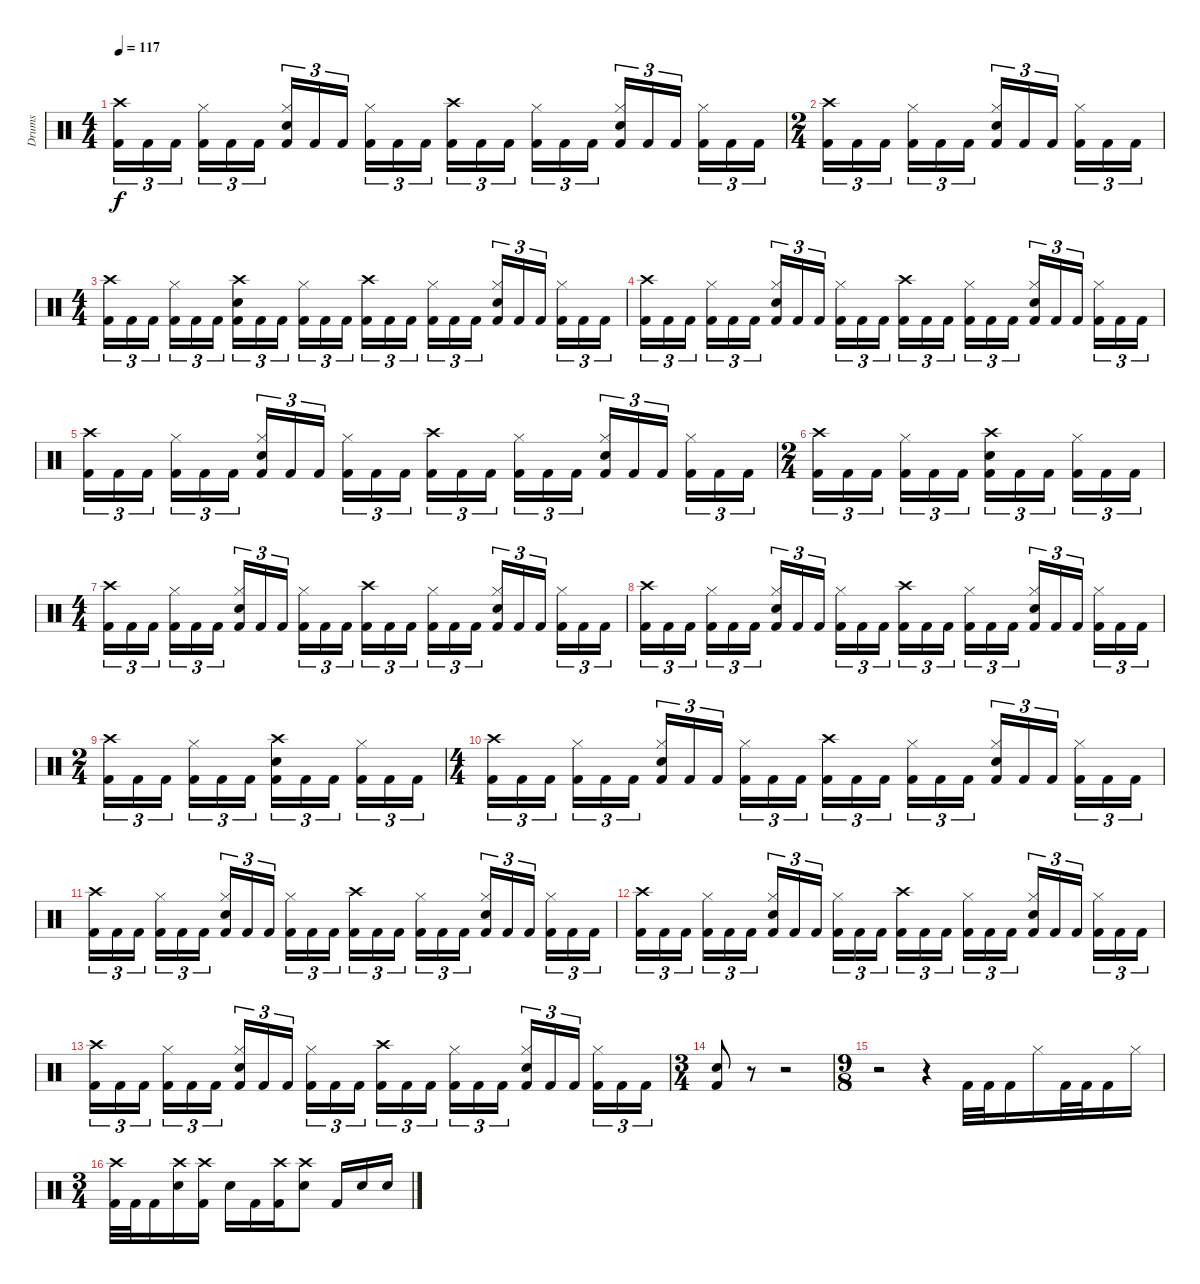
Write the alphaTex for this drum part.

\track ("Drums" "Drums") {instrument percussion}
\staff {score}
\articulation defaults
\ts (4 4)
\tempo 117
\clef neutral
\ks c
("Crash high (hit)" "Kick (hit) 2").16{tu (3 2) dy f} "Kick (hit) 2".16{tu (3 2)} "Kick (hit) 2".16{tu (3 2)} ("Hi-Hat (closed)" "Kick (hit) 2").16{tu (3 2)} "Kick (hit) 2".16{tu (3 2)} "Kick (hit) 2".16{tu (3 2)} ("Hi-Hat (closed)" "Electric Snare (hit)" "Kick (hit) 2").16{tu (3 2)} "Kick (hit) 2".16{tu (3 2)} "Kick (hit) 2".16{tu (3 2)} ("Hi-Hat (closed)" "Kick (hit) 2").16{tu (3 2)} "Kick (hit) 2".16{tu (3 2)} "Kick (hit) 2".16{tu (3 2)} ("Crash high (hit)" "Kick (hit) 2").16{tu (3 2)} "Kick (hit) 2".16{tu (3 2)} "Kick (hit) 2".16{tu (3 2)} ("Hi-Hat (closed)" "Kick (hit) 2").16{tu (3 2)} "Kick (hit) 2".16{tu (3 2)} "Kick (hit) 2".16{tu (3 2)} ("Hi-Hat (closed)" "Electric Snare (hit)" "Kick (hit) 2").16{tu (3 2)} "Kick (hit) 2".16{tu (3 2)} "Kick (hit) 2".16{tu (3 2)} ("Hi-Hat (closed)" "Kick (hit) 2").16{tu (3 2)} "Kick (hit) 2".16{tu (3 2)} "Kick (hit) 2".16{tu (3 2)} |
\ts (2 4)
("Crash high (hit)" "Kick (hit) 2").16{tu (3 2)} "Kick (hit) 2".16{tu (3 2)} "Kick (hit) 2".16{tu (3 2)} ("Hi-Hat (closed)" "Kick (hit) 2").16{tu (3 2)} "Kick (hit) 2".16{tu (3 2)} "Kick (hit) 2".16{tu (3 2)} ("Hi-Hat (closed)" "Electric Snare (hit)" "Kick (hit) 2").16{tu (3 2)} "Kick (hit) 2".16{tu (3 2)} "Kick (hit) 2".16{tu (3 2)} ("Hi-Hat (closed)" "Kick (hit) 2").16{tu (3 2)} "Kick (hit) 2".16{tu (3 2)} "Kick (hit) 2".16{tu (3 2)} |
\ts (4 4)
("Crash high (hit)" "Kick (hit) 2").16{tu (3 2)} "Kick (hit) 2".16{tu (3 2)} "Kick (hit) 2".16{tu (3 2)} ("Hi-Hat (closed)" "Kick (hit) 2").16{tu (3 2)} "Kick (hit) 2".16{tu (3 2)} "Kick (hit) 2".16{tu (3 2)} ("Crash high (hit)" "Electric Snare (hit)" "Kick (hit) 2").16{tu (3 2)} "Kick (hit) 2".16{tu (3 2)} "Kick (hit) 2".16{tu (3 2)} ("Hi-Hat (closed)" "Kick (hit) 2").16{tu (3 2)} "Kick (hit) 2".16{tu (3 2)} "Kick (hit) 2".16{tu (3 2)} ("Crash high (hit)" "Kick (hit) 2").16{tu (3 2)} "Kick (hit) 2".16{tu (3 2)} "Kick (hit) 2".16{tu (3 2)} ("Hi-Hat (closed)" "Kick (hit) 2").16{tu (3 2)} "Kick (hit) 2".16{tu (3 2)} "Kick (hit) 2".16{tu (3 2)} ("Hi-Hat (closed)" "Electric Snare (hit)" "Kick (hit) 2").16{tu (3 2)} "Kick (hit) 2".16{tu (3 2)} "Kick (hit) 2".16{tu (3 2)} ("Hi-Hat (closed)" "Kick (hit) 2").16{tu (3 2)} "Kick (hit) 2".16{tu (3 2)} "Kick (hit) 2".16{tu (3 2)} |
("Crash high (hit)" "Kick (hit) 2").16{tu (3 2)} "Kick (hit) 2".16{tu (3 2)} "Kick (hit) 2".16{tu (3 2)} ("Hi-Hat (closed)" "Kick (hit) 2").16{tu (3 2)} "Kick (hit) 2".16{tu (3 2)} "Kick (hit) 2".16{tu (3 2)} ("Hi-Hat (closed)" "Electric Snare (hit)" "Kick (hit) 2").16{tu (3 2)} "Kick (hit) 2".16{tu (3 2)} "Kick (hit) 2".16{tu (3 2)} ("Hi-Hat (closed)" "Kick (hit) 2").16{tu (3 2)} "Kick (hit) 2".16{tu (3 2)} "Kick (hit) 2".16{tu (3 2)} ("Crash high (hit)" "Kick (hit) 2").16{tu (3 2)} "Kick (hit) 2".16{tu (3 2)} "Kick (hit) 2".16{tu (3 2)} ("Hi-Hat (closed)" "Kick (hit) 2").16{tu (3 2)} "Kick (hit) 2".16{tu (3 2)} "Kick (hit) 2".16{tu (3 2)} ("Hi-Hat (closed)" "Electric Snare (hit)" "Kick (hit) 2").16{tu (3 2)} "Kick (hit) 2".16{tu (3 2)} "Kick (hit) 2".16{tu (3 2)} ("Hi-Hat (closed)" "Kick (hit) 2").16{tu (3 2)} "Kick (hit) 2".16{tu (3 2)} "Kick (hit) 2".16{tu (3 2)} |
("Crash high (hit)" "Kick (hit) 2").16{tu (3 2)} "Kick (hit) 2".16{tu (3 2)} "Kick (hit) 2".16{tu (3 2)} ("Hi-Hat (closed)" "Kick (hit) 2").16{tu (3 2)} "Kick (hit) 2".16{tu (3 2)} "Kick (hit) 2".16{tu (3 2)} ("Hi-Hat (closed)" "Electric Snare (hit)" "Kick (hit) 2").16{tu (3 2)} "Kick (hit) 2".16{tu (3 2)} "Kick (hit) 2".16{tu (3 2)} ("Hi-Hat (closed)" "Kick (hit) 2").16{tu (3 2)} "Kick (hit) 2".16{tu (3 2)} "Kick (hit) 2".16{tu (3 2)} ("Crash high (hit)" "Kick (hit) 2").16{tu (3 2)} "Kick (hit) 2".16{tu (3 2)} "Kick (hit) 2".16{tu (3 2)} ("Hi-Hat (closed)" "Kick (hit) 2").16{tu (3 2)} "Kick (hit) 2".16{tu (3 2)} "Kick (hit) 2".16{tu (3 2)} ("Hi-Hat (closed)" "Electric Snare (hit)" "Kick (hit) 2").16{tu (3 2)} "Kick (hit) 2".16{tu (3 2)} "Kick (hit) 2".16{tu (3 2)} ("Hi-Hat (closed)" "Kick (hit) 2").16{tu (3 2)} "Kick (hit) 2".16{tu (3 2)} "Kick (hit) 2".16{tu (3 2)} |
\ts (2 4)
("Crash high (hit)" "Kick (hit) 2").16{tu (3 2)} "Kick (hit) 2".16{tu (3 2)} "Kick (hit) 2".16{tu (3 2)} ("Hi-Hat (closed)" "Kick (hit) 2").16{tu (3 2)} "Kick (hit) 2".16{tu (3 2)} "Kick (hit) 2".16{tu (3 2)} ("Crash high (hit)" "Electric Snare (hit)" "Kick (hit) 2").16{tu (3 2)} "Kick (hit) 2".16{tu (3 2)} "Kick (hit) 2".16{tu (3 2)} ("Hi-Hat (closed)" "Kick (hit) 2").16{tu (3 2)} "Kick (hit) 2".16{tu (3 2)} "Kick (hit) 2".16{tu (3 2)} |
\ts (4 4)
("Crash high (hit)" "Kick (hit) 2").16{tu (3 2)} "Kick (hit) 2".16{tu (3 2)} "Kick (hit) 2".16{tu (3 2)} ("Hi-Hat (closed)" "Kick (hit) 2").16{tu (3 2)} "Kick (hit) 2".16{tu (3 2)} "Kick (hit) 2".16{tu (3 2)} ("Hi-Hat (closed)" "Electric Snare (hit)" "Kick (hit) 2").16{tu (3 2)} "Kick (hit) 2".16{tu (3 2)} "Kick (hit) 2".16{tu (3 2)} ("Hi-Hat (closed)" "Kick (hit) 2").16{tu (3 2)} "Kick (hit) 2".16{tu (3 2)} "Kick (hit) 2".16{tu (3 2)} ("Crash high (hit)" "Kick (hit) 2").16{tu (3 2)} "Kick (hit) 2".16{tu (3 2)} "Kick (hit) 2".16{tu (3 2)} ("Hi-Hat (closed)" "Kick (hit) 2").16{tu (3 2)} "Kick (hit) 2".16{tu (3 2)} "Kick (hit) 2".16{tu (3 2)} ("Hi-Hat (closed)" "Electric Snare (hit)" "Kick (hit) 2").16{tu (3 2)} "Kick (hit) 2".16{tu (3 2)} "Kick (hit) 2".16{tu (3 2)} ("Hi-Hat (closed)" "Kick (hit) 2").16{tu (3 2)} "Kick (hit) 2".16{tu (3 2)} "Kick (hit) 2".16{tu (3 2)} |
("Crash high (hit)" "Kick (hit) 2").16{tu (3 2)} "Kick (hit) 2".16{tu (3 2)} "Kick (hit) 2".16{tu (3 2)} ("Hi-Hat (closed)" "Kick (hit) 2").16{tu (3 2)} "Kick (hit) 2".16{tu (3 2)} "Kick (hit) 2".16{tu (3 2)} ("Hi-Hat (closed)" "Electric Snare (hit)" "Kick (hit) 2").16{tu (3 2)} "Kick (hit) 2".16{tu (3 2)} "Kick (hit) 2".16{tu (3 2)} ("Hi-Hat (closed)" "Kick (hit) 2").16{tu (3 2)} "Kick (hit) 2".16{tu (3 2)} "Kick (hit) 2".16{tu (3 2)} ("Crash high (hit)" "Kick (hit) 2").16{tu (3 2)} "Kick (hit) 2".16{tu (3 2)} "Kick (hit) 2".16{tu (3 2)} ("Hi-Hat (closed)" "Kick (hit) 2").16{tu (3 2)} "Kick (hit) 2".16{tu (3 2)} "Kick (hit) 2".16{tu (3 2)} ("Hi-Hat (closed)" "Electric Snare (hit)" "Kick (hit) 2").16{tu (3 2)} "Kick (hit) 2".16{tu (3 2)} "Kick (hit) 2".16{tu (3 2)} ("Hi-Hat (closed)" "Kick (hit) 2").16{tu (3 2)} "Kick (hit) 2".16{tu (3 2)} "Kick (hit) 2".16{tu (3 2)} |
\ts (2 4)
("Crash high (hit)" "Kick (hit) 2").16{tu (3 2)} "Kick (hit) 2".16{tu (3 2)} "Kick (hit) 2".16{tu (3 2)} ("Hi-Hat (closed)" "Kick (hit) 2").16{tu (3 2)} "Kick (hit) 2".16{tu (3 2)} "Kick (hit) 2".16{tu (3 2)} ("Crash high (hit)" "Electric Snare (hit)" "Kick (hit) 2").16{tu (3 2)} "Kick (hit) 2".16{tu (3 2)} "Kick (hit) 2".16{tu (3 2)} ("Hi-Hat (closed)" "Kick (hit) 2").16{tu (3 2)} "Kick (hit) 2".16{tu (3 2)} "Kick (hit) 2".16{tu (3 2)} |
\ts (4 4)
("Crash high (hit)" "Kick (hit) 2").16{tu (3 2)} "Kick (hit) 2".16{tu (3 2)} "Kick (hit) 2".16{tu (3 2)} ("Hi-Hat (closed)" "Kick (hit) 2").16{tu (3 2)} "Kick (hit) 2".16{tu (3 2)} "Kick (hit) 2".16{tu (3 2)} ("Hi-Hat (closed)" "Electric Snare (hit)" "Kick (hit) 2").16{tu (3 2)} "Kick (hit) 2".16{tu (3 2)} "Kick (hit) 2".16{tu (3 2)} ("Hi-Hat (closed)" "Kick (hit) 2").16{tu (3 2)} "Kick (hit) 2".16{tu (3 2)} "Kick (hit) 2".16{tu (3 2)} ("Crash high (hit)" "Kick (hit) 2").16{tu (3 2)} "Kick (hit) 2".16{tu (3 2)} "Kick (hit) 2".16{tu (3 2)} ("Hi-Hat (closed)" "Kick (hit) 2").16{tu (3 2)} "Kick (hit) 2".16{tu (3 2)} "Kick (hit) 2".16{tu (3 2)} ("Hi-Hat (closed)" "Electric Snare (hit)" "Kick (hit) 2").16{tu (3 2)} "Kick (hit) 2".16{tu (3 2)} "Kick (hit) 2".16{tu (3 2)} ("Hi-Hat (closed)" "Kick (hit) 2").16{tu (3 2)} "Kick (hit) 2".16{tu (3 2)} "Kick (hit) 2".16{tu (3 2)} |
("Crash high (hit)" "Kick (hit) 2").16{tu (3 2)} "Kick (hit) 2".16{tu (3 2)} "Kick (hit) 2".16{tu (3 2)} ("Hi-Hat (closed)" "Kick (hit) 2").16{tu (3 2)} "Kick (hit) 2".16{tu (3 2)} "Kick (hit) 2".16{tu (3 2)} ("Hi-Hat (closed)" "Electric Snare (hit)" "Kick (hit) 2").16{tu (3 2)} "Kick (hit) 2".16{tu (3 2)} "Kick (hit) 2".16{tu (3 2)} ("Hi-Hat (closed)" "Kick (hit) 2").16{tu (3 2)} "Kick (hit) 2".16{tu (3 2)} "Kick (hit) 2".16{tu (3 2)} ("Crash high (hit)" "Kick (hit) 2").16{tu (3 2)} "Kick (hit) 2".16{tu (3 2)} "Kick (hit) 2".16{tu (3 2)} ("Hi-Hat (closed)" "Kick (hit) 2").16{tu (3 2)} "Kick (hit) 2".16{tu (3 2)} "Kick (hit) 2".16{tu (3 2)} ("Hi-Hat (closed)" "Electric Snare (hit)" "Kick (hit) 2").16{tu (3 2)} "Kick (hit) 2".16{tu (3 2)} "Kick (hit) 2".16{tu (3 2)} ("Hi-Hat (closed)" "Kick (hit) 2").16{tu (3 2)} "Kick (hit) 2".16{tu (3 2)} "Kick (hit) 2".16{tu (3 2)} |
("Crash high (hit)" "Kick (hit) 2").16{tu (3 2)} "Kick (hit) 2".16{tu (3 2)} "Kick (hit) 2".16{tu (3 2)} ("Hi-Hat (closed)" "Kick (hit) 2").16{tu (3 2)} "Kick (hit) 2".16{tu (3 2)} "Kick (hit) 2".16{tu (3 2)} ("Hi-Hat (closed)" "Electric Snare (hit)" "Kick (hit) 2").16{tu (3 2)} "Kick (hit) 2".16{tu (3 2)} "Kick (hit) 2".16{tu (3 2)} ("Hi-Hat (closed)" "Kick (hit) 2").16{tu (3 2)} "Kick (hit) 2".16{tu (3 2)} "Kick (hit) 2".16{tu (3 2)} ("Crash high (hit)" "Kick (hit) 2").16{tu (3 2)} "Kick (hit) 2".16{tu (3 2)} "Kick (hit) 2".16{tu (3 2)} ("Hi-Hat (closed)" "Kick (hit) 2").16{tu (3 2)} "Kick (hit) 2".16{tu (3 2)} "Kick (hit) 2".16{tu (3 2)} ("Hi-Hat (closed)" "Electric Snare (hit)" "Kick (hit) 2").16{tu (3 2)} "Kick (hit) 2".16{tu (3 2)} "Kick (hit) 2".16{tu (3 2)} ("Hi-Hat (closed)" "Kick (hit) 2").16{tu (3 2)} "Kick (hit) 2".16{tu (3 2)} "Kick (hit) 2".16{tu (3 2)} |
("Crash high (hit)" "Kick (hit) 2").16{tu (3 2)} "Kick (hit) 2".16{tu (3 2)} "Kick (hit) 2".16{tu (3 2)} ("Hi-Hat (closed)" "Kick (hit) 2").16{tu (3 2)} "Kick (hit) 2".16{tu (3 2)} "Kick (hit) 2".16{tu (3 2)} ("Hi-Hat (closed)" "Electric Snare (hit)" "Kick (hit) 2").16{tu (3 2)} "Kick (hit) 2".16{tu (3 2)} "Kick (hit) 2".16{tu (3 2)} ("Hi-Hat (closed)" "Kick (hit) 2").16{tu (3 2)} "Kick (hit) 2".16{tu (3 2)} "Kick (hit) 2".16{tu (3 2)} ("Crash high (hit)" "Kick (hit) 2").16{tu (3 2)} "Kick (hit) 2".16{tu (3 2)} "Kick (hit) 2".16{tu (3 2)} ("Hi-Hat (closed)" "Kick (hit) 2").16{tu (3 2)} "Kick (hit) 2".16{tu (3 2)} "Kick (hit) 2".16{tu (3 2)} ("Hi-Hat (closed)" "Electric Snare (hit)" "Kick (hit) 2").16{tu (3 2)} "Kick (hit) 2".16{tu (3 2)} "Kick (hit) 2".16{tu (3 2)} ("Hi-Hat (closed)" "Kick (hit) 2").16{tu (3 2)} "Kick (hit) 2".16{tu (3 2)} "Kick (hit) 2".16{tu (3 2)} |
\ts (3 4)
("Electric Snare (hit)" "Kick (hit) 2").8 r.8 r.2 |
\ts (9 8)
r.2 r.4 "Kick (hit) 2".32 "Kick (hit) 2".32 "Kick (hit) 2".16 "Hi-Hat (closed)".16 "Kick (hit) 2".32 "Kick (hit) 2".32 "Kick (hit) 2".16 "Hi-Hat (closed)".16 |
\ts (3 4)
("Crash high (hit)" "Kick (hit) 2").32 "Kick (hit) 2".32 "Kick (hit) 2".16 ("Crash high (hit)" "Electric Snare (hit)").16 ("Crash high (hit)" "Kick (hit) 2").16 "Electric Snare (hit)".16 "Kick (hit) 2".16 ("Crash high (hit)" "Kick (hit) 2").16 ("Crash high (hit)" "Electric Snare (hit)").8 "Kick (hit) 2".16 "Electric Snare (hit)".16 "Electric Snare (hit)".16
